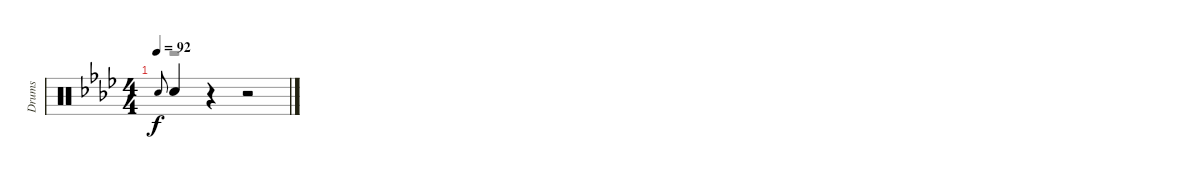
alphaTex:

\track ("Drums" "Drums") {instrument percussion}
\staff {score}
\articulation defaults
\voice
\ts (4 4)
\tempo 92
\clef neutral
\ks ab "Snare (hit) 2".8{gr onbeat dy f} "Snare (hit) 2".4
r.4 r.2
\voice
\clef neutral
\ottava regular
\simile none
\ks ab
r.1{dy fff}
